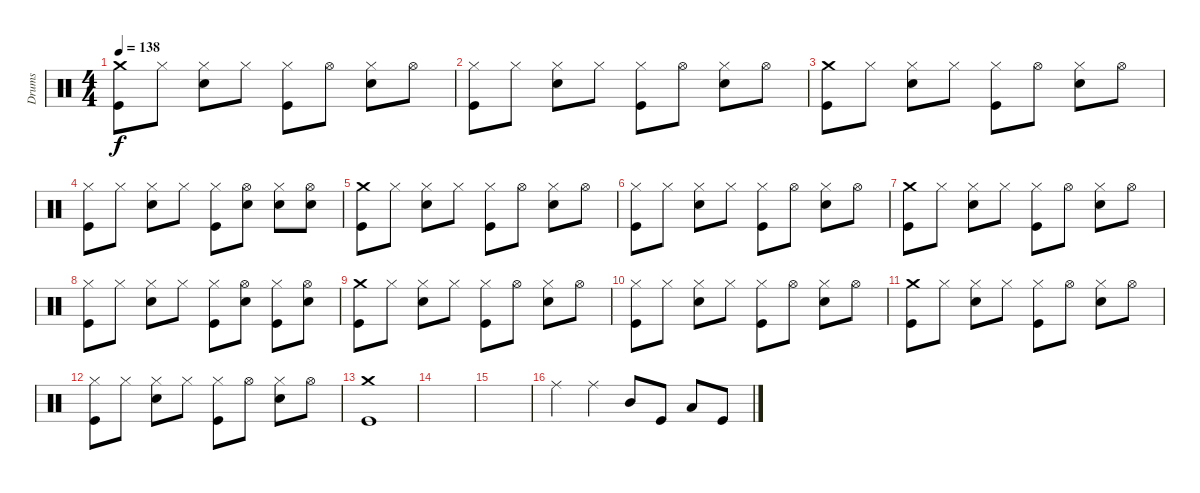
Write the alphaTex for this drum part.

\track ("Drums" "Drums") {instrument percussion}
\staff {score}
\articulation defaults
\ts (4 4)
\tempo 138
\clef neutral
\ks c
("Crash medium (hit)" "Kick (hit)").8{dy f} "Hi-Hat (closed)".8 ("Hi-Hat (closed)" "Electric Snare (hit)").8 "Hi-Hat (closed)".8 ("Hi-Hat (closed)" "Kick (hit)").8 "Hi-Hat (open)".8 ("Hi-Hat (closed)" "Electric Snare (hit)").8 "Hi-Hat (open)".8 |
("Hi-Hat (closed)" "Kick (hit)").8 "Hi-Hat (closed)".8 ("Hi-Hat (closed)" "Electric Snare (hit)").8 "Hi-Hat (closed)".8 ("Hi-Hat (closed)" "Kick (hit)").8 "Hi-Hat (open)".8 ("Hi-Hat (closed)" "Electric Snare (hit)").8 "Hi-Hat (open)".8 |
("Crash medium (hit)" "Kick (hit)").8 "Hi-Hat (closed)".8 ("Hi-Hat (closed)" "Electric Snare (hit)").8 "Hi-Hat (closed)".8 ("Hi-Hat (closed)" "Kick (hit)").8 "Hi-Hat (open)".8 ("Hi-Hat (closed)" "Electric Snare (hit)").8 "Hi-Hat (open)".8 |
("Hi-Hat (closed)" "Kick (hit)").8 "Hi-Hat (closed)".8 ("Hi-Hat (closed)" "Electric Snare (hit)").8 "Hi-Hat (closed)".8 ("Hi-Hat (closed)" "Kick (hit)").8 ("Hi-Hat (open)" "Electric Snare (hit)").8 ("Hi-Hat (closed)" "Electric Snare (hit)").8 ("Hi-Hat (open)" "Electric Snare (hit)").8 |
("Crash medium (hit)" "Kick (hit)").8 "Hi-Hat (closed)".8 ("Hi-Hat (closed)" "Electric Snare (hit)").8 "Hi-Hat (closed)".8 ("Hi-Hat (closed)" "Kick (hit)").8 "Hi-Hat (open)".8 ("Hi-Hat (closed)" "Electric Snare (hit)").8 "Hi-Hat (open)".8 |
("Hi-Hat (closed)" "Kick (hit)").8 "Hi-Hat (closed)".8 ("Hi-Hat (closed)" "Electric Snare (hit)").8 "Hi-Hat (closed)".8 ("Hi-Hat (closed)" "Kick (hit)").8 "Hi-Hat (open)".8 ("Hi-Hat (closed)" "Electric Snare (hit)").8 "Hi-Hat (open)".8 |
("Crash medium (hit)" "Kick (hit)").8 "Hi-Hat (closed)".8 ("Hi-Hat (closed)" "Electric Snare (hit)").8 "Hi-Hat (closed)".8 ("Hi-Hat (closed)" "Kick (hit)").8 "Hi-Hat (open)".8 ("Hi-Hat (closed)" "Electric Snare (hit)").8 "Hi-Hat (open)".8 |
("Hi-Hat (closed)" "Kick (hit)").8 "Hi-Hat (closed)".8 ("Hi-Hat (closed)" "Electric Snare (hit)").8 "Hi-Hat (closed)".8 ("Hi-Hat (closed)" "Kick (hit)").8 ("Hi-Hat (open)" "Electric Snare (hit)").8 ("Hi-Hat (closed)" "Kick (hit)").8 ("Hi-Hat (open)" "Electric Snare (hit)").8 |
("Crash medium (hit)" "Kick (hit)").8 "Hi-Hat (closed)".8 ("Hi-Hat (closed)" "Electric Snare (hit)").8 "Hi-Hat (closed)".8 ("Hi-Hat (closed)" "Kick (hit)").8 "Hi-Hat (open)".8 ("Hi-Hat (closed)" "Electric Snare (hit)").8 "Hi-Hat (open)".8 |
("Hi-Hat (closed)" "Kick (hit)").8 "Hi-Hat (closed)".8 ("Hi-Hat (closed)" "Electric Snare (hit)").8 "Hi-Hat (closed)".8 ("Hi-Hat (closed)" "Kick (hit)").8 "Hi-Hat (open)".8 ("Hi-Hat (closed)" "Electric Snare (hit)").8 "Hi-Hat (open)".8 |
("Crash medium (hit)" "Kick (hit)").8 "Hi-Hat (closed)".8 ("Hi-Hat (closed)" "Electric Snare (hit)").8 "Hi-Hat (closed)".8 ("Hi-Hat (closed)" "Kick (hit)").8 "Hi-Hat (open)".8 ("Hi-Hat (closed)" "Electric Snare (hit)").8 "Hi-Hat (open)".8 |
("Hi-Hat (closed)" "Kick (hit)").8 "Hi-Hat (closed)".8 ("Hi-Hat (closed)" "Electric Snare (hit)").8 "Hi-Hat (closed)".8 ("Hi-Hat (closed)" "Kick (hit)").8 "Hi-Hat (open)".8 ("Hi-Hat (closed)" "Electric Snare (hit)").8 "Hi-Hat (open)".8 |
("Crash medium (hit)" "Kick (hit)").1 |
|
|
"Ride (middle)".4 "Ride (middle)".4 "Mid Tom (hit)".8 "Kick (hit)".8 "Low Tom (hit)".8 "Kick (hit)".8
